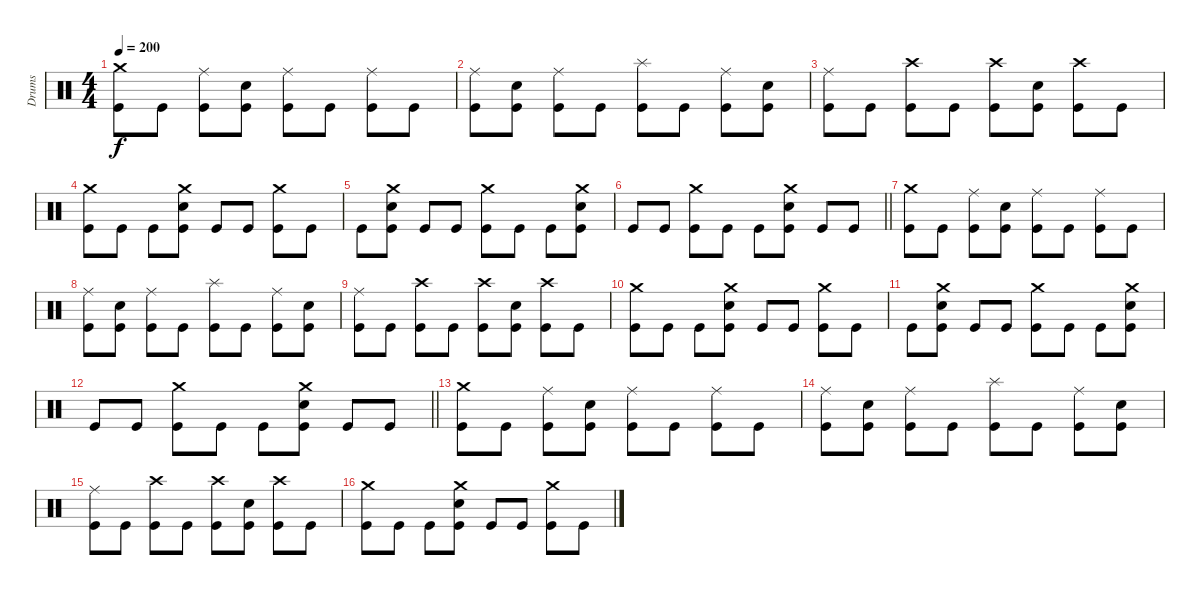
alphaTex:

\track ("Drums" "Drums") {instrument percussion}
\staff {score}
\articulation defaults
\ts (4 4)
\tempo 200
\clef neutral
\ks c
("Crash medium (hit)" "Kick (hit)").8{dy f} "Kick (hit)".8 ("Ride (middle)" "Kick (hit)").8 ("Snare (hit) 2" "Kick (hit)").8 ("Ride (middle)" "Kick (hit)").8 "Kick (hit)".8 ("Ride (middle)" "Kick (hit)").8 "Kick (hit)".8 |
("Ride (middle)" "Kick (hit)").8 ("Snare (hit) 2" "Kick (hit)").8 ("Ride (middle)" "Kick (hit)").8 "Kick (hit)".8 ("Splash (hit)" "Kick (hit)").8 "Kick (hit)".8 ("Ride (middle)" "Kick (hit)").8 ("Snare (hit) 2" "Kick (hit)").8 |
("Ride (middle)" "Kick (hit)").8 "Kick (hit)".8 ("Crash high (hit)" "Kick (hit)").8 "Kick (hit)".8 ("Crash high (hit)" "Kick (hit)").8 ("Snare (hit) 2" "Kick (hit)").8 ("Crash high (hit)" "Kick (hit)").8 "Kick (hit)".8 |
("Crash medium (hit)" "Kick (hit)").8 "Kick (hit)".8 "Kick (hit)".8 ("Crash medium (hit)" "Snare (hit) 2" "Kick (hit)").8 "Kick (hit)".8 "Kick (hit)".8 ("Crash medium (hit)" "Kick (hit)").8 "Kick (hit)".8 |
"Kick (hit)".8 ("Crash medium (hit)" "Snare (hit) 2" "Kick (hit)").8 "Kick (hit)".8 "Kick (hit)".8 ("Crash medium (hit)" "Kick (hit)").8 "Kick (hit)".8 "Kick (hit)".8 ("Crash medium (hit)" "Snare (hit) 2" "Kick (hit)").8 |
\barLineRight lightlight "Kick (hit)".8 "Kick (hit)".8
("Crash medium (hit)" "Kick (hit)").8 "Kick (hit)".8 "Kick (hit)".8 ("Crash medium (hit)" "Snare (hit) 2" "Kick (hit)").8 "Kick (hit)".8 "Kick (hit)".8 |
("Crash medium (hit)" "Kick (hit)").8 "Kick (hit)".8 ("Ride (middle)" "Kick (hit)").8 ("Snare (hit) 2" "Kick (hit)").8 ("Ride (middle)" "Kick (hit)").8 "Kick (hit)".8 ("Ride (middle)" "Kick (hit)").8 "Kick (hit)".8 |
("Ride (middle)" "Kick (hit)").8 ("Snare (hit) 2" "Kick (hit)").8 ("Ride (middle)" "Kick (hit)").8 "Kick (hit)".8 ("Splash (hit)" "Kick (hit)").8 "Kick (hit)".8 ("Ride (middle)" "Kick (hit)").8 ("Snare (hit) 2" "Kick (hit)").8 |
("Ride (middle)" "Kick (hit)").8 "Kick (hit)".8 ("Crash high (hit)" "Kick (hit)").8 "Kick (hit)".8 ("Crash high (hit)" "Kick (hit)").8 ("Snare (hit) 2" "Kick (hit)").8 ("Crash high (hit)" "Kick (hit)").8 "Kick (hit)".8 |
("Crash medium (hit)" "Kick (hit)").8 "Kick (hit)".8 "Kick (hit)".8 ("Crash medium (hit)" "Snare (hit) 2" "Kick (hit)").8 "Kick (hit)".8 "Kick (hit)".8 ("Crash medium (hit)" "Kick (hit)").8 "Kick (hit)".8 |
"Kick (hit)".8 ("Crash medium (hit)" "Snare (hit) 2" "Kick (hit)").8 "Kick (hit)".8 "Kick (hit)".8 ("Crash medium (hit)" "Kick (hit)").8 "Kick (hit)".8 "Kick (hit)".8 ("Crash medium (hit)" "Snare (hit) 2" "Kick (hit)").8 |
\barLineRight lightlight "Kick (hit)".8 "Kick (hit)".8
("Crash medium (hit)" "Kick (hit)").8 "Kick (hit)".8 "Kick (hit)".8 ("Crash medium (hit)" "Snare (hit) 2" "Kick (hit)").8 "Kick (hit)".8 "Kick (hit)".8 |
("Crash medium (hit)" "Kick (hit)").8 "Kick (hit)".8 ("Ride (middle)" "Kick (hit)").8 ("Snare (hit) 2" "Kick (hit)").8 ("Ride (middle)" "Kick (hit)").8 "Kick (hit)".8 ("Ride (middle)" "Kick (hit)").8 "Kick (hit)".8 |
("Ride (middle)" "Kick (hit)").8 ("Snare (hit) 2" "Kick (hit)").8 ("Ride (middle)" "Kick (hit)").8 "Kick (hit)".8 ("Splash (hit)" "Kick (hit)").8 "Kick (hit)".8 ("Ride (middle)" "Kick (hit)").8 ("Snare (hit) 2" "Kick (hit)").8 |
("Ride (middle)" "Kick (hit)").8 "Kick (hit)".8 ("Crash high (hit)" "Kick (hit)").8 "Kick (hit)".8 ("Crash high (hit)" "Kick (hit)").8 ("Snare (hit) 2" "Kick (hit)").8 ("Crash high (hit)" "Kick (hit)").8 "Kick (hit)".8 |
("Crash medium (hit)" "Kick (hit)").8 "Kick (hit)".8 "Kick (hit)".8 ("Crash medium (hit)" "Snare (hit) 2" "Kick (hit)").8 "Kick (hit)".8 "Kick (hit)".8 ("Crash medium (hit)" "Kick (hit)").8 "Kick (hit)".8
